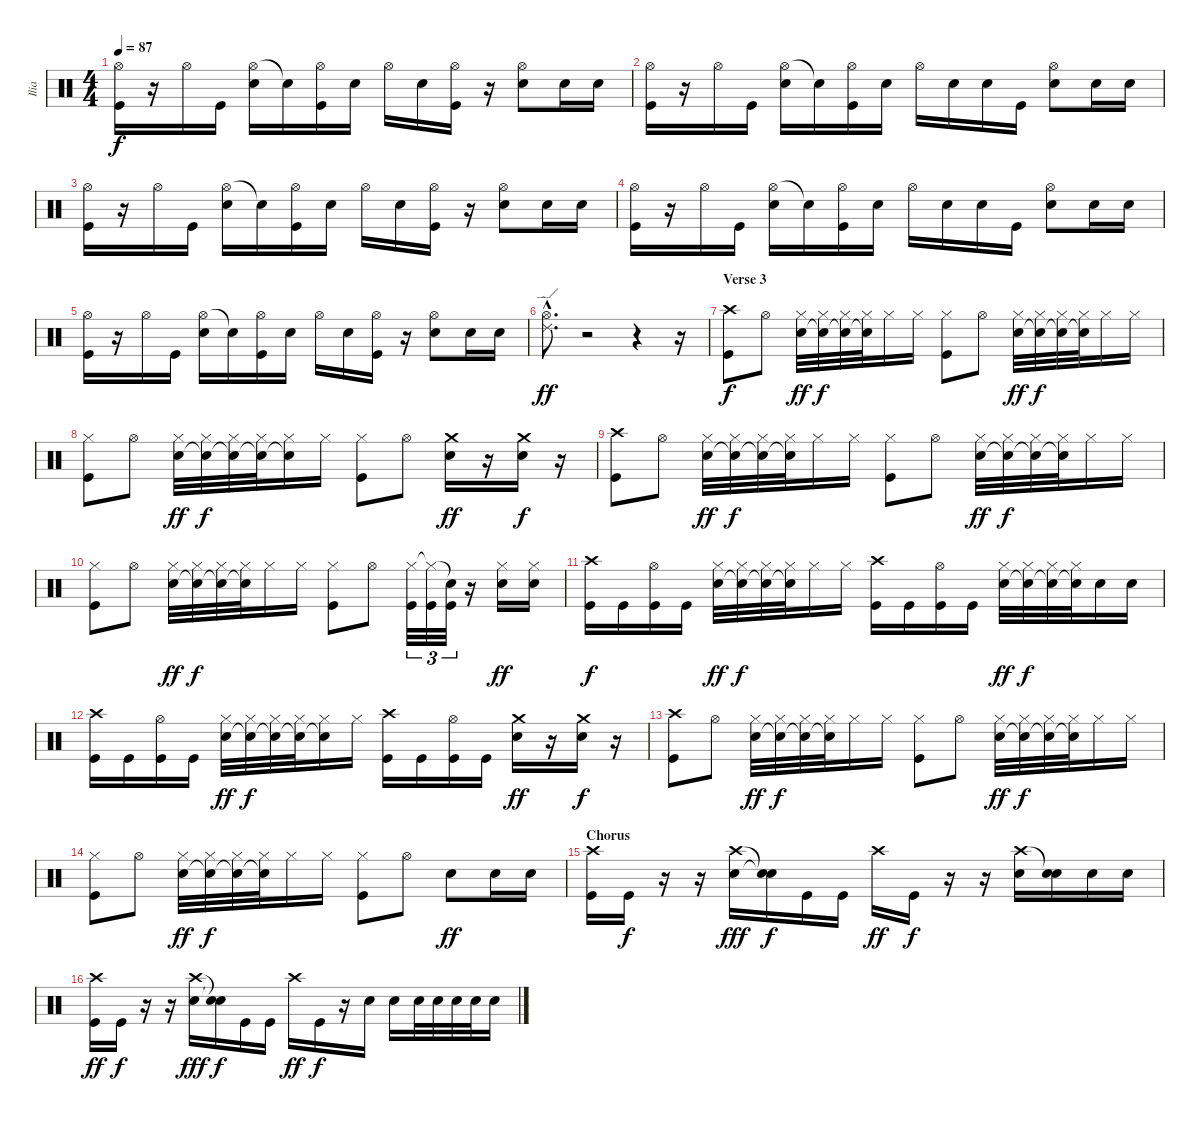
\track ("Ilia" "Ilia") {instrument percussion}
\staff {score}
\articulation defaults
\ts (4 4)
\tempo 87
\clef neutral
\ks c
("Hi-Hat (open)" "Kick (hit)").16{dy f} r.16 "Hi-Hat (open)".16 "Kick (hit)".16 ("Hi-Hat (open)" "Electric Snare (hit)").16 "Electric Snare (hit)"{t}.16 ("Hi-Hat (open)" "Kick (hit)").16 "Electric Snare (hit)".16 "Hi-Hat (open)".16 "Electric Snare (hit)".16 ("Hi-Hat (open)" "Kick (hit)").16 r.16 ("Hi-Hat (open)" "Electric Snare (hit)").8 "Electric Snare (hit)".16 "Electric Snare (hit)".16 |
("Hi-Hat (open)" "Kick (hit)").16 r.16 "Hi-Hat (open)".16 "Kick (hit)".16 ("Hi-Hat (open)" "Electric Snare (hit)").16 "Electric Snare (hit)"{t}.16 ("Hi-Hat (open)" "Kick (hit)").16 "Electric Snare (hit)".16 "Hi-Hat (open)".16 "Electric Snare (hit)".16 "Electric Snare (hit)".16 "Kick (hit)".16 ("Hi-Hat (open)" "Electric Snare (hit)").8 "Electric Snare (hit)".16 "Electric Snare (hit)".16 |
("Hi-Hat (open)" "Kick (hit)").16 r.16 "Hi-Hat (open)".16 "Kick (hit)".16 ("Hi-Hat (open)" "Electric Snare (hit)").16 "Electric Snare (hit)"{t}.16 ("Hi-Hat (open)" "Kick (hit)").16 "Electric Snare (hit)".16 "Hi-Hat (open)".16 "Electric Snare (hit)".16 ("Hi-Hat (open)" "Kick (hit)").16 r.16 ("Hi-Hat (open)" "Electric Snare (hit)").8 "Electric Snare (hit)".16 "Electric Snare (hit)".16 |
("Hi-Hat (open)" "Kick (hit)").16 r.16 "Hi-Hat (open)".16 "Kick (hit)".16 ("Hi-Hat (open)" "Electric Snare (hit)").16 "Electric Snare (hit)"{t}.16 ("Hi-Hat (open)" "Kick (hit)").16 "Electric Snare (hit)".16 "Hi-Hat (open)".16 "Electric Snare (hit)".16 "Electric Snare (hit)".16 "Kick (hit)".16 ("Hi-Hat (open)" "Electric Snare (hit)").8 "Electric Snare (hit)".16 "Electric Snare (hit)".16 |
("Hi-Hat (open)" "Kick (hit)").16 r.16 "Hi-Hat (open)".16 "Kick (hit)".16 ("Hi-Hat (open)" "Electric Snare (hit)").16 "Electric Snare (hit)"{t}.16 ("Hi-Hat (open)" "Kick (hit)").16 "Electric Snare (hit)".16 "Hi-Hat (open)".16 "Electric Snare (hit)".16 ("Hi-Hat (open)" "Kick (hit)").16 r.16 ("Hi-Hat (open)" "Electric Snare (hit)").8 "Electric Snare (hit)".16 "Electric Snare (hit)".16 |
("Hi-Hat (open)"{hac} "Ride (edge) 2"{hac}).8{d dy ff} r.2 r.4 r.16 |
\section ("" "Verse 3")
("Crash high (hit)" "Kick (hit)").8{dy f} "Hi-Hat (open)".8 ("Hi-Hat (closed)" "Electric Snare (hit)").32{dy ff} ("Hi-Hat (closed)" "Snare (hit)"{t}).32{dy f} ("Hi-Hat (closed)" "Snare (hit)"{t}).32 ("Hi-Hat (closed)" "Snare (hit)"{t}).32 "Hi-Hat (closed)".16 "Hi-Hat (closed)".16 ("Hi-Hat (closed)" "Kick (hit)").8 "Hi-Hat (open)".8 ("Hi-Hat (closed)" "Electric Snare (hit)").32{dy ff} ("Hi-Hat (closed)" "Snare (hit)"{t}).32{dy f} ("Hi-Hat (closed)" "Snare (hit)"{t}).32 ("Hi-Hat (closed)" "Snare (hit)"{t}).32 "Hi-Hat (closed)".16 "Hi-Hat (closed)".16 |
("Hi-Hat (closed)" "Kick (hit)").8 "Hi-Hat (open)".8 ("Hi-Hat (closed)" "Electric Snare (hit)").32{dy ff} ("Hi-Hat (closed)" "Snare (hit)"{t}).32{dy f} ("Hi-Hat (closed)" "Snare (hit)"{t}).32 ("Hi-Hat (closed)" "Snare (hit)"{t}).32 ("Hi-Hat (closed)" "Snare (hit)"{t}).16 "Hi-Hat (closed)".16 ("Hi-Hat (closed)" "Kick (hit)").8 "Hi-Hat (open)".8 ("Crash medium (hit)" "Electric Snare (hit)").16{dy ff} r.16 ("Crash medium (hit)" "Electric Snare (hit)").16{dy f} r.16 |
("Crash high (hit)" "Kick (hit)").8 "Hi-Hat (open)".8 ("Hi-Hat (closed)" "Electric Snare (hit)").32{dy ff} ("Hi-Hat (closed)" "Snare (hit)"{t}).32{dy f} ("Hi-Hat (closed)" "Snare (hit)"{t}).32 ("Hi-Hat (closed)" "Snare (hit)"{t}).32 "Hi-Hat (closed)".16 "Hi-Hat (closed)".16 ("Hi-Hat (closed)" "Kick (hit)").8 "Hi-Hat (open)".8 ("Hi-Hat (closed)" "Electric Snare (hit)").32{dy ff} ("Hi-Hat (closed)" "Snare (hit)"{t}).32{dy f} ("Hi-Hat (closed)" "Snare (hit)"{t}).32 ("Hi-Hat (closed)" "Snare (hit)"{t}).32 "Hi-Hat (closed)".16 "Hi-Hat (closed)".16 |
("Hi-Hat (closed)" "Kick (hit)").8 "Hi-Hat (open)".8 ("Hi-Hat (closed)" "Electric Snare (hit)").32{dy ff} ("Hi-Hat (closed)" "Snare (hit)"{t}).32{dy f} ("Hi-Hat (closed)" "Snare (hit)"{t}).32 ("Hi-Hat (closed)" "Snare (hit)"{t}).32 "Hi-Hat (closed)".16 "Hi-Hat (closed)".16 ("Hi-Hat (closed)" "Kick (hit)").8 "Hi-Hat (open)".8 ("Hi-Hat (closed)" "Kick (hit)").32{tu (3 2)} ("Hi-Hat (closed)"{t} "Kick (hit)").32{tu (3 2)} ("Snare (hit)"{t} "Kick (hit)").32{tu (3 2)} r.16 ("Hi-Hat (closed)" "Electric Snare (hit)").16{dy ff} ("Hi-Hat (closed)" "Electric Snare (hit)").16 |
("Crash high (hit)" "Kick (hit)").16{dy f} "Kick (hit)".16 ("Hi-Hat (open)" "Kick (hit)").16 "Kick (hit)".16 ("Hi-Hat (closed)" "Electric Snare (hit)").32{dy ff} ("Hi-Hat (closed)" "Snare (hit)"{t}).32{dy f} ("Hi-Hat (closed)" "Snare (hit)"{t}).32 ("Hi-Hat (closed)" "Snare (hit)"{t}).32 "Hi-Hat (closed)".16 "Hi-Hat (closed)".16 ("Crash high (hit)" "Kick (hit)").16 "Kick (hit)".16 ("Hi-Hat (open)" "Kick (hit)").16 "Kick (hit)".16 ("Hi-Hat (closed)" "Electric Snare (hit)").32{dy ff} ("Hi-Hat (closed)" "Snare (hit)"{t}).32{dy f} ("Hi-Hat (closed)" "Snare (hit)"{t}).32 ("Hi-Hat (closed)" "Snare (hit)"{t}).32 "Electric Snare (hit)".16 "Electric Snare (hit)".16 |
("Crash high (hit)" "Kick (hit)").16 "Kick (hit)".16 ("Hi-Hat (open)" "Kick (hit)").16 "Kick (hit)".16 ("Hi-Hat (closed)" "Electric Snare (hit)").32{dy ff} ("Hi-Hat (closed)" "Snare (hit)"{t}).32{dy f} ("Hi-Hat (closed)" "Snare (hit)"{t}).32 ("Hi-Hat (closed)" "Snare (hit)"{t}).32 ("Hi-Hat (closed)" "Snare (hit)"{t}).16 "Hi-Hat (closed)".16 ("Crash high (hit)" "Kick (hit)").16 "Kick (hit)".16 ("Hi-Hat (open)" "Kick (hit)").16 "Kick (hit)".16 ("Crash medium (hit)" "Electric Snare (hit)").16{dy ff} r.16 ("Crash medium (hit)" "Electric Snare (hit)").16{dy f} r.16 |
("Crash high (hit)" "Kick (hit)").8 "Hi-Hat (open)".8 ("Hi-Hat (closed)" "Electric Snare (hit)").32{dy ff} ("Hi-Hat (closed)" "Snare (hit)"{t}).32{dy f} ("Hi-Hat (closed)" "Snare (hit)"{t}).32 ("Hi-Hat (closed)" "Snare (hit)"{t}).32 "Hi-Hat (closed)".16 "Hi-Hat (closed)".16 ("Hi-Hat (closed)" "Kick (hit)").8 "Hi-Hat (open)".8 ("Hi-Hat (closed)" "Electric Snare (hit)").32{dy ff} ("Hi-Hat (closed)" "Snare (hit)"{t}).32{dy f} ("Hi-Hat (closed)" "Snare (hit)"{t}).32 ("Hi-Hat (closed)" "Snare (hit)"{t}).32 "Hi-Hat (closed)".16 "Hi-Hat (closed)".16 |
("Hi-Hat (closed)" "Kick (hit)").8 "Hi-Hat (open)".8 ("Hi-Hat (closed)" "Electric Snare (hit)").32{dy ff} ("Hi-Hat (closed)" "Snare (hit)"{t}).32{dy f} ("Hi-Hat (closed)" "Snare (hit)"{t}).32 ("Hi-Hat (closed)" "Snare (hit)"{t}).32 "Hi-Hat (closed)".16 "Hi-Hat (closed)".16 ("Hi-Hat (closed)" "Kick (hit)").8 "Hi-Hat (open)".8 "Electric Snare (hit)".8{dy ff} "Electric Snare (hit)".16 "Electric Snare (hit)".16 |
\section ("" "Chorus")
("Crash high (hit)" "Kick (hit)").16 "Kick (hit)".16{dy f} r.16 r.16 ("Crash high (hit)" "Electric Snare (hit)").16{dy fff} ("Snare (hit)"{t} "Snare (hit)"{t}).16{dy f} "Kick (hit)".16 "Kick (hit)".16 "Crash high (hit)".16{dy ff} "Kick (hit)".16{dy f} r.16 r.16 ("Crash high (hit)" "Electric Snare (hit)").16 ("Snare (hit)"{t} "Electric Snare (hit)").16 "Electric Snare (hit)".16 "Electric Snare (hit)".16 |
("Crash high (hit)" "Kick (hit)").16{dy ff} "Kick (hit)".16{dy f} r.16 r.16 ("Crash high (hit)" "Electric Snare (hit)").16{dy fff} ("Snare (hit)"{t} "Snare (hit)"{t}).16{dy f} "Kick (hit)".16 "Kick (hit)".16 "Crash high (hit)".16{dy ff} "Kick (hit)".16{dy f} r.16 "Electric Snare (hit)".16 "Electric Snare (hit)".16 "Electric Snare (hit)".32 "Electric Snare (hit)".32 "Electric Snare (hit)".32 "Electric Snare (hit)".32 "Electric Snare (hit)".16
